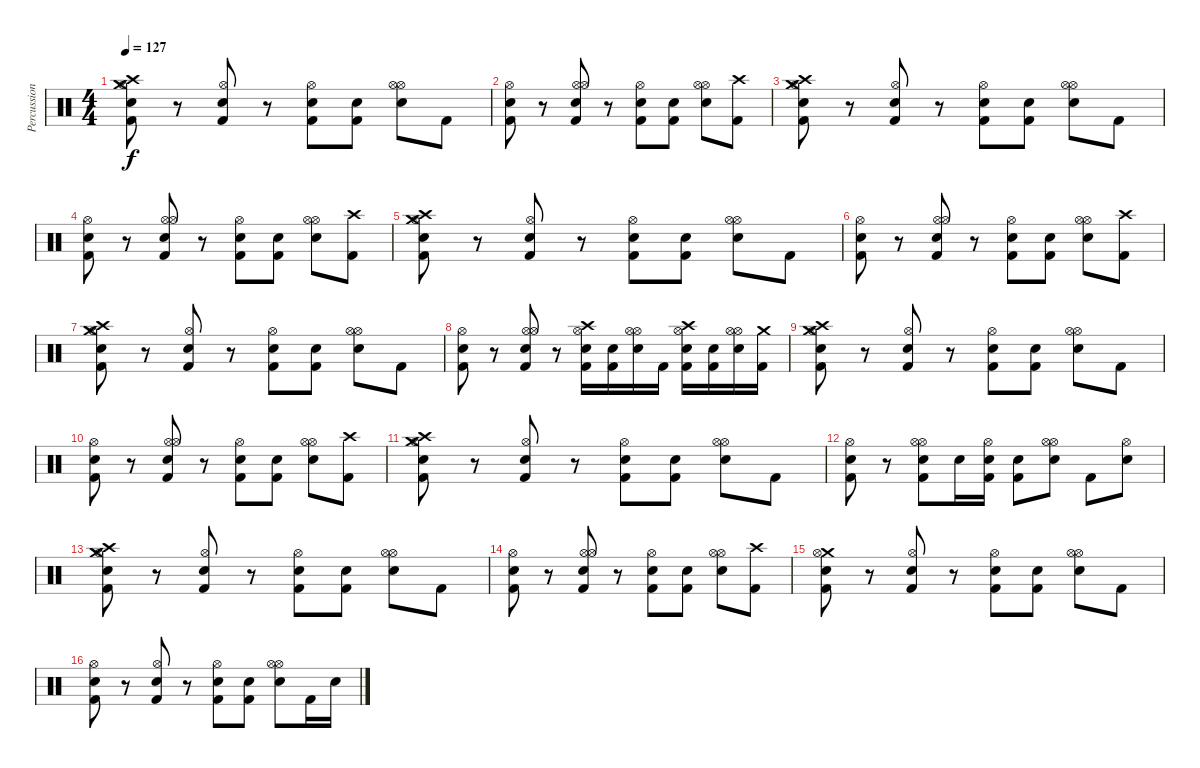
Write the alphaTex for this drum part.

\track ("Percussion" "Percussion") {instrument percussion}
\staff {score}
\articulation defaults
\ts (4 4)
\tempo 127
\clef neutral
\ks c
("Crash high (hit)" "Crash medium (hit)" "Kick (hit) 2" "Snare (hit) 2" "Hi-Hat (open)").8{dy f} r.8 ("Hi-Hat (open)" "Kick (hit) 2" "Electric Snare (hit)").8 r.8 ("Kick (hit) 2" "Snare (hit) 2" "Hi-Hat (open)").8 ("Kick (hit) 2" "Snare (hit) 2").8 ("Hi-Hat (open)" "Electric Snare (hit)" "Hi-Hat (open)").8 "Kick (hit) 2".8 |
("Kick (hit) 2" "Snare (hit) 2" "Hi-Hat (open)").8 r.8 ("Hi-Hat (open)" "Kick (hit) 2" "Electric Snare (hit)" "Hi-Hat (open)").8 r.8 ("Kick (hit) 2" "Snare (hit) 2" "Hi-Hat (open)").8 ("Kick (hit) 2" "Snare (hit) 2").8 ("Hi-Hat (open)" "Electric Snare (hit)" "Hi-Hat (open)").8 ("Crash high (hit)" "Kick (hit) 2").8 |
("Crash high (hit)" "Crash medium (hit)" "Kick (hit) 2" "Snare (hit) 2" "Hi-Hat (open)").8 r.8 ("Hi-Hat (open)" "Kick (hit) 2" "Electric Snare (hit)").8 r.8 ("Kick (hit) 2" "Snare (hit) 2" "Hi-Hat (open)").8 ("Kick (hit) 2" "Snare (hit) 2").8 ("Hi-Hat (open)" "Electric Snare (hit)" "Hi-Hat (open)").8 "Kick (hit) 2".8 |
("Kick (hit) 2" "Snare (hit) 2" "Hi-Hat (open)").8 r.8 ("Hi-Hat (open)" "Kick (hit) 2" "Electric Snare (hit)" "Hi-Hat (open)").8 r.8 ("Kick (hit) 2" "Snare (hit) 2" "Hi-Hat (open)").8 ("Kick (hit) 2" "Snare (hit) 2").8 ("Hi-Hat (open)" "Electric Snare (hit)" "Hi-Hat (open)").8 ("Crash high (hit)" "Kick (hit) 2").8 |
("Crash high (hit)" "Crash medium (hit)" "Kick (hit) 2" "Snare (hit) 2" "Hi-Hat (open)").8 r.8 ("Hi-Hat (open)" "Kick (hit) 2" "Electric Snare (hit)").8 r.8 ("Kick (hit) 2" "Snare (hit) 2" "Hi-Hat (open)").8 ("Kick (hit) 2" "Snare (hit) 2").8 ("Hi-Hat (open)" "Electric Snare (hit)" "Hi-Hat (open)").8 "Kick (hit) 2".8 |
("Kick (hit) 2" "Snare (hit) 2" "Hi-Hat (open)").8 r.8 ("Hi-Hat (open)" "Kick (hit) 2" "Electric Snare (hit)" "Hi-Hat (open)").8 r.8 ("Kick (hit) 2" "Snare (hit) 2" "Hi-Hat (open)").8 ("Kick (hit) 2" "Snare (hit) 2").8 ("Hi-Hat (open)" "Electric Snare (hit)" "Hi-Hat (open)").8 ("Crash high (hit)" "Kick (hit) 2").8 |
("Crash high (hit)" "Crash medium (hit)" "Kick (hit) 2" "Snare (hit) 2" "Hi-Hat (open)").8 r.8 ("Hi-Hat (open)" "Kick (hit) 2" "Electric Snare (hit)").8 r.8 ("Kick (hit) 2" "Snare (hit) 2" "Hi-Hat (open)").8 ("Kick (hit) 2" "Snare (hit) 2").8 ("Hi-Hat (open)" "Electric Snare (hit)" "Hi-Hat (open)").8 "Kick (hit) 2".8 |
("Kick (hit) 2" "Snare (hit) 2" "Hi-Hat (open)").8 r.8 ("Hi-Hat (open)" "Kick (hit) 2" "Electric Snare (hit)" "Hi-Hat (open)").8 r.8 ("Crash high (hit)" "Kick (hit) 2" "Snare (hit) 2" "Hi-Hat (open)").16 ("Kick (hit) 2" "Snare (hit) 2").16 ("Hi-Hat (open)" "Electric Snare (hit)" "Hi-Hat (open)").16 "Kick (hit) 2".16 ("Crash high (hit)" "Kick (hit) 2" "Snare (hit) 2" "Hi-Hat (open)").16 ("Kick (hit) 2" "Snare (hit) 2").16 ("Hi-Hat (open)" "Electric Snare (hit)" "Hi-Hat (open)").16 ("Crash medium (hit)" "Kick (hit) 2").16 |
("Crash high (hit)" "Crash medium (hit)" "Kick (hit) 2" "Snare (hit) 2" "Hi-Hat (open)").8 r.8 ("Hi-Hat (open)" "Kick (hit) 2" "Electric Snare (hit)").8 r.8 ("Kick (hit) 2" "Snare (hit) 2" "Hi-Hat (open)").8 ("Kick (hit) 2" "Snare (hit) 2").8 ("Hi-Hat (open)" "Electric Snare (hit)" "Hi-Hat (open)").8 "Kick (hit) 2".8 |
("Kick (hit) 2" "Snare (hit) 2" "Hi-Hat (open)").8 r.8 ("Hi-Hat (open)" "Kick (hit) 2" "Electric Snare (hit)" "Hi-Hat (open)").8 r.8 ("Kick (hit) 2" "Snare (hit) 2" "Hi-Hat (open)").8 ("Kick (hit) 2" "Snare (hit) 2").8 ("Hi-Hat (open)" "Electric Snare (hit)" "Hi-Hat (open)").8 ("Crash high (hit)" "Kick (hit) 2").8 |
("Crash high (hit)" "Crash medium (hit)" "Kick (hit) 2" "Snare (hit) 2" "Hi-Hat (open)").8 r.8 ("Hi-Hat (open)" "Kick (hit) 2" "Electric Snare (hit)").8 r.8 ("Kick (hit) 2" "Snare (hit) 2" "Hi-Hat (open)").8 ("Kick (hit) 2" "Snare (hit) 2").8 ("Hi-Hat (open)" "Electric Snare (hit)" "Hi-Hat (open)").8 "Kick (hit) 2".8 |
("Kick (hit) 2" "Snare (hit) 2" "Hi-Hat (open)").8 r.8 ("Hi-Hat (open)" "Kick (hit) 2" "Electric Snare (hit)" "Hi-Hat (open)").8 "Snare (hit) 2".16 ("Kick (hit) 2" "Snare (hit) 2" "Hi-Hat (open)").16 ("Kick (hit) 2" "Electric Snare (hit)").8 ("Hi-Hat (open)" "Snare (hit) 2" "Hi-Hat (open)").8 "Kick (hit) 2".8 ("Hi-Hat (open)" "Electric Snare (hit)").8 |
("Crash high (hit)" "Crash medium (hit)" "Kick (hit) 2" "Snare (hit) 2" "Hi-Hat (open)").8 r.8 ("Hi-Hat (open)" "Kick (hit) 2" "Electric Snare (hit)").8 r.8 ("Kick (hit) 2" "Snare (hit) 2" "Hi-Hat (open)").8 ("Kick (hit) 2" "Snare (hit) 2").8 ("Hi-Hat (open)" "Electric Snare (hit)" "Hi-Hat (open)").8 "Kick (hit) 2".8 |
("Kick (hit) 2" "Snare (hit) 2" "Hi-Hat (open)").8 r.8 ("Hi-Hat (open)" "Kick (hit) 2" "Electric Snare (hit)" "Hi-Hat (open)").8 r.8 ("Kick (hit) 2" "Snare (hit) 2" "Hi-Hat (open)").8 ("Kick (hit) 2" "Snare (hit) 2").8 ("Hi-Hat (open)" "Electric Snare (hit)" "Hi-Hat (open)").8 ("Crash high (hit)" "Kick (hit) 2").8 |
("Crash medium (hit)" "Kick (hit) 2" "Snare (hit) 2" "Hi-Hat (open)").8 r.8 ("Hi-Hat (open)" "Kick (hit) 2" "Electric Snare (hit)").8 r.8 ("Kick (hit) 2" "Snare (hit) 2" "Hi-Hat (open)").8 ("Kick (hit) 2" "Snare (hit) 2").8 ("Hi-Hat (open)" "Electric Snare (hit)" "Hi-Hat (open)").8 "Kick (hit) 2".8 |
("Kick (hit) 2" "Snare (hit) 2" "Hi-Hat (open)").8 r.8 ("Hi-Hat (open)" "Kick (hit) 2" "Electric Snare (hit)").8 r.8 ("Kick (hit) 2" "Snare (hit) 2" "Hi-Hat (open)").8 ("Kick (hit) 2" "Snare (hit) 2").8 ("Hi-Hat (open)" "Electric Snare (hit)" "Hi-Hat (open)").8 "Kick (hit) 2".16 "Electric Snare (hit)".16
